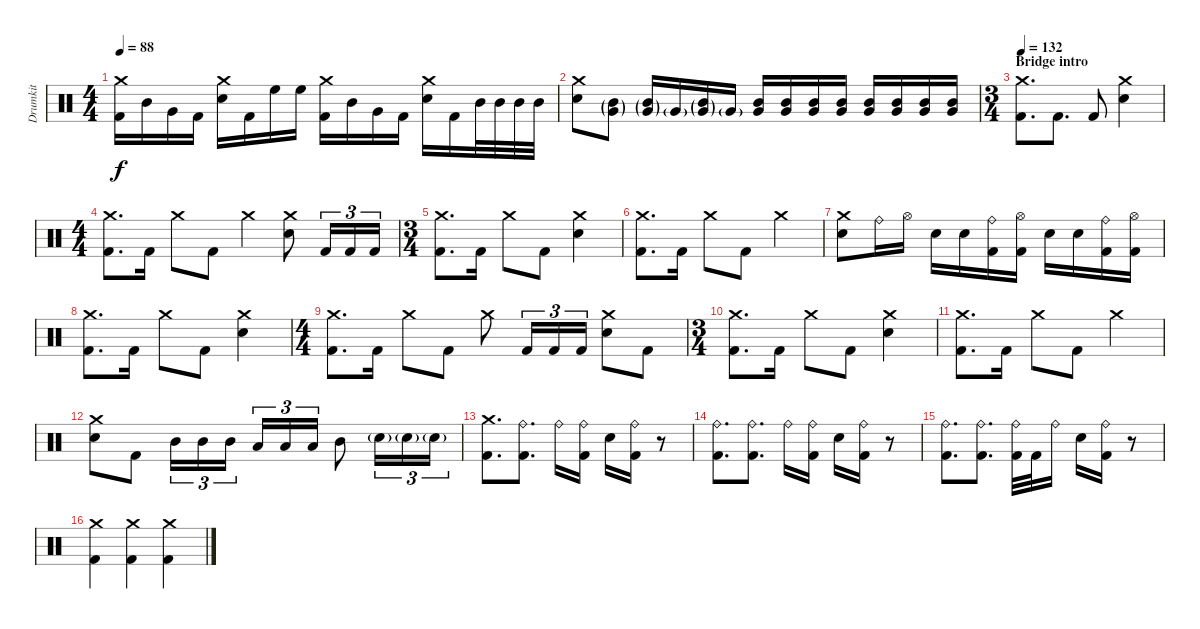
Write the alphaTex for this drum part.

\track ("Drumkit" "Drumkit") {instrument percussion}
\staff {score}
\articulation defaults
\ts (4 4)
\tempo 88
\clef neutral
\ks c
("Crash medium (hit)" "Kick (hit) 2").16{dy f} "Mid Tom (hit)".16 "Very Low Tom (hit)".16 "Kick (hit) 2".16 ("Crash medium (hit)" "Snare (hit) 2").16 "Kick (hit) 2".16 "High Floor Tom (hit)".16 "High Floor Tom (hit)".16 ("Crash medium (hit)" "Kick (hit) 2").16 "Mid Tom (hit)".16 "Very Low Tom (hit)".16 "Kick (hit) 2".16 ("Crash medium (hit)" "Snare (hit) 2").16 "Kick (hit) 2".16 "Mid Tom (hit)".32 "Mid Tom (hit)".32 "Mid Tom (hit)".32 "Mid Tom (hit)".32 |
("Crash medium (hit)" "Snare (hit) 2").8 ("Mid Tom (hit)"{g} "Very Low Tom (hit)"{g}).8 ("Mid Tom (hit)"{g} "Very Low Tom (hit)"{g}).16 "Very Low Tom (hit)"{g}.16 ("Mid Tom (hit)"{g} "Very Low Tom (hit)"{g}).16 "Very Low Tom (hit)"{g}.16 ("Mid Tom (hit)" "Very Low Tom (hit)").16 ("Mid Tom (hit)" "Very Low Tom (hit)").16 ("Mid Tom (hit)" "Very Low Tom (hit)").16 ("Mid Tom (hit)" "Very Low Tom (hit)").16 ("Mid Tom (hit)" "Very Low Tom (hit)").16 ("Mid Tom (hit)" "Very Low Tom (hit)").16 ("Mid Tom (hit)" "Very Low Tom (hit)").16 ("Mid Tom (hit)" "Very Low Tom (hit)").16 |
\ts (3 4)
\section ("" "Bridge intro")
\tempo 132
("Crash medium (hit)" "Kick (hit) 2").8{d} "Kick (hit) 2".8{d} "Kick (hit) 2".8 ("Crash medium (hit)" "Snare (hit) 2").4 |
\ts (4 4)
("Crash medium (hit)" "Kick (hit) 2").8{d} "Kick (hit) 2".16 "Crash medium (hit)".8 "Kick (hit) 2".8 "Crash medium (hit)".4 ("Crash medium (hit)" "Snare (hit) 2").8 "Kick (hit) 2".16{tu (3 2)} "Kick (hit) 2".16{tu (3 2)} "Kick (hit) 2".16{tu (3 2)} |
\ts (3 4)
("Crash medium (hit)" "Kick (hit) 2").8{d} "Kick (hit) 2".16 "Crash medium (hit)".8 "Kick (hit) 2".8 ("Crash medium (hit)" "Snare (hit) 2").4 |
("Crash medium (hit)" "Kick (hit) 2").8{d} "Kick (hit) 2".16 "Crash medium (hit)".8 "Kick (hit) 2".8 "Crash medium (hit)".4 |
("Crash medium (hit)" "Snare (hit) 2").8 "Ride (bell)".16 "Hi-Hat (open)".16 "Snare (hit) 2".16 "Snare (hit) 2".16 ("Ride (bell)" "Kick (hit) 2").16 ("Hi-Hat (open)" "Kick (hit) 2").16 "Snare (hit) 2".16 "Snare (hit) 2".16 ("Ride (bell)" "Kick (hit) 2").16 ("Hi-Hat (open)" "Kick (hit) 2").16 |
("Crash medium (hit)" "Kick (hit) 2").8{d} "Kick (hit) 2".16 "Crash medium (hit)".8 "Kick (hit) 2".8 ("Crash medium (hit)" "Snare (hit) 2").4 |
\ts (4 4)
("Crash medium (hit)" "Kick (hit) 2").8{d} "Kick (hit) 2".16 "Crash medium (hit)".8 "Kick (hit) 2".8 "Crash medium (hit)".8 "Kick (hit) 2".16{tu (3 2)} "Kick (hit) 2".16{tu (3 2)} "Kick (hit) 2".16{tu (3 2)} ("Crash medium (hit)" "Snare (hit) 2").8 "Kick (hit) 2".8 |
\ts (3 4)
("Crash medium (hit)" "Kick (hit) 2").8{d} "Kick (hit) 2".16 "Crash medium (hit)".8 "Kick (hit) 2".8 ("Crash medium (hit)" "Snare (hit) 2").4 |
("Crash medium (hit)" "Kick (hit) 2").8{d} "Kick (hit) 2".16 "Crash medium (hit)".8 "Kick (hit) 2".8 "Crash medium (hit)".4 |
("Crash medium (hit)" "Snare (hit) 2").8 "Kick (hit) 2".8 "Mid Tom (hit)".16{tu (3 2)} "Mid Tom (hit)".16{tu (3 2)} "Mid Tom (hit)".16{tu (3 2)} "Low Tom (hit)".16{tu (3 2)} "Low Tom (hit)".16{tu (3 2)} "Low Tom (hit)".16{tu (3 2)} "Mid Tom (hit)".8 "Snare (hit) 2"{g}.16{tu (3 2)} "Snare (hit) 2"{g}.16{tu (3 2)} "Snare (hit) 2"{g}.16{tu (3 2)} |
("Crash medium (hit)" "Kick (hit) 2").8{d} ("Ride (bell)" "Kick (hit) 2").8{d} "Ride (bell)".16 ("Ride (bell)" "Kick (hit) 2").16 "Snare (hit) 2".16 ("Ride (bell)" "Kick (hit) 2").16 r.8 |
("Ride (bell)" "Kick (hit) 2").8{d} ("Ride (bell)" "Kick (hit) 2").8{d} "Ride (bell)".16 ("Ride (bell)" "Kick (hit) 2").16 "Snare (hit) 2".16 ("Ride (bell)" "Kick (hit) 2").16 r.8 |
("Ride (bell)" "Kick (hit) 2").8{d} ("Ride (bell)" "Kick (hit) 2").8{d} ("Ride (bell)" "Kick (hit) 2").32 "Kick (hit) 2".32 "Ride (bell)".16 "Snare (hit) 2".16 ("Ride (bell)" "Kick (hit) 2").16 r.8 |
("Crash medium (hit)" "Kick (hit) 2").4 ("Crash medium (hit)" "Kick (hit) 2").4 ("Crash medium (hit)" "Kick (hit) 2").4
